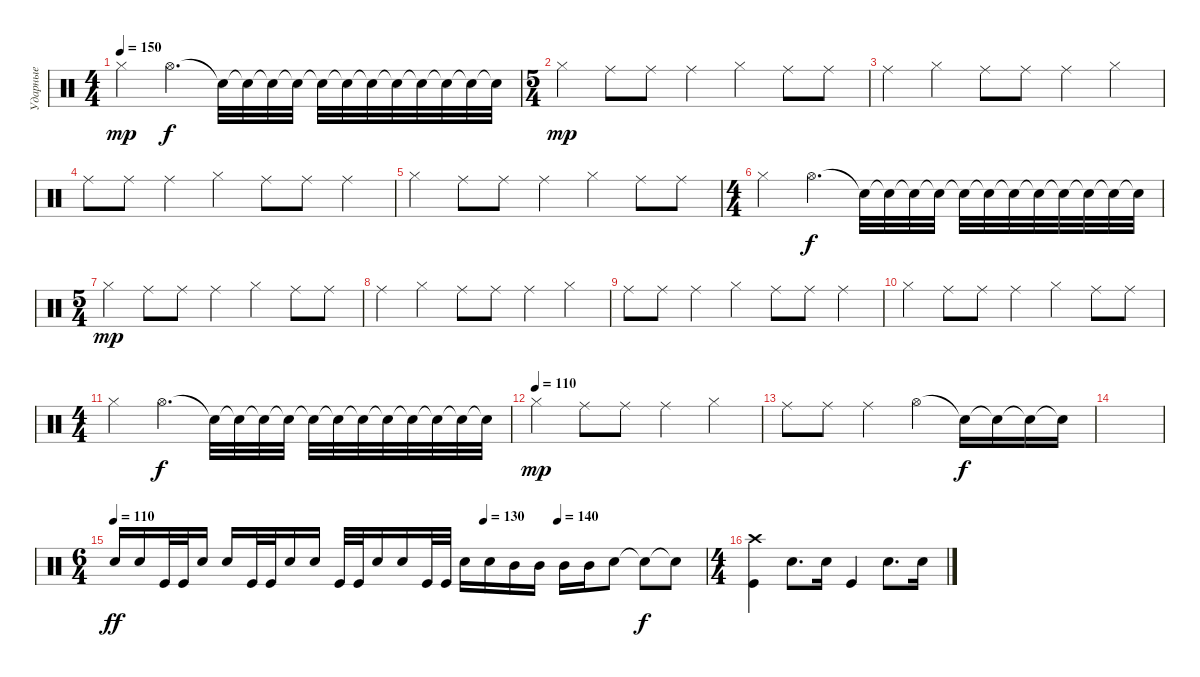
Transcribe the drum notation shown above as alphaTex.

\track ("Ударные" "Ударные") {instrument percussion}
\staff {score}
\articulation defaults
\ts (4 4)
\tempo 150
\clef neutral
\ks c "Hi-Hat (closed)".4{dy mp} "Hi-Hat (open)".4{d dy f} "Snare (hit)"{t}.32 "Snare (hit)"{t}.32 "Snare (hit)"{t}.32 "Snare (hit)"{t}.32 "Snare (hit)"{t}.32 "Snare (hit)"{t}.32 "Snare (hit)"{t}.32 "Snare (hit)"{t}.32 "Snare (hit)"{t}.32 "Snare (hit)"{t}.32 "Snare (hit)"{t}.32 "Snare (hit)"{t}.32
|
\ts (5 4)
"Hi-Hat (closed)".4{dy mp} "Ride (middle)".8 "Ride (middle)".8 "Ride (middle)".4 "Hi-Hat (closed)".4 "Ride (middle)".8 "Ride (middle)".8 |
"Ride (middle)".4 "Hi-Hat (closed)".4 "Ride (middle)".8 "Ride (middle)".8 "Ride (middle)".4 "Hi-Hat (closed)".4 |
"Ride (middle)".8 "Ride (middle)".8 "Ride (middle)".4 "Hi-Hat (closed)".4 "Ride (middle)".8 "Ride (middle)".8 "Ride (middle)".4 |
"Hi-Hat (closed)".4 "Ride (middle)".8 "Ride (middle)".8 "Ride (middle)".4 "Hi-Hat (closed)".4 "Ride (middle)".8 "Ride (middle)".8 |
\ts (4 4)
"Hi-Hat (closed)".4 "Hi-Hat (open)".4{d dy f} "Snare (hit)"{t}.32 "Snare (hit)"{t}.32 "Snare (hit)"{t}.32 "Snare (hit)"{t}.32 "Snare (hit)"{t}.32 "Snare (hit)"{t}.32 "Snare (hit)"{t}.32 "Snare (hit)"{t}.32 "Snare (hit)"{t}.32 "Snare (hit)"{t}.32 "Snare (hit)"{t}.32 "Snare (hit)"{t}.32 |
\ts (5 4)
"Hi-Hat (closed)".4{dy mp} "Ride (middle)".8 "Ride (middle)".8 "Ride (middle)".4 "Hi-Hat (closed)".4 "Ride (middle)".8 "Ride (middle)".8 |
"Ride (middle)".4 "Hi-Hat (closed)".4 "Ride (middle)".8 "Ride (middle)".8 "Ride (middle)".4 "Hi-Hat (closed)".4 |
"Ride (middle)".8 "Ride (middle)".8 "Ride (middle)".4 "Hi-Hat (closed)".4 "Ride (middle)".8 "Ride (middle)".8 "Ride (middle)".4 |
"Hi-Hat (closed)".4 "Ride (middle)".8 "Ride (middle)".8 "Ride (middle)".4 "Hi-Hat (closed)".4 "Ride (middle)".8 "Ride (middle)".8 |
\ts (4 4)
"Hi-Hat (closed)".4 "Hi-Hat (open)".4{d dy f} "Snare (hit)"{t}.32 "Snare (hit)"{t}.32 "Snare (hit)"{t}.32 "Snare (hit)"{t}.32 "Snare (hit)"{t}.32 "Snare (hit)"{t}.32 "Snare (hit)"{t}.32 "Snare (hit)"{t}.32 "Snare (hit)"{t}.32 "Snare (hit)"{t}.32 "Snare (hit)"{t}.32 "Snare (hit)"{t}.32 |
\tempo (110)
"Hi-Hat (closed)".4{dy mp} "Ride (middle)".8 "Ride (middle)".8 "Ride (middle)".4 "Hi-Hat (closed)".4 |
"Ride (middle)".8 "Ride (middle)".8 "Ride (middle)".4 "Hi-Hat (open)".4 "Snare (hit)"{t}.16{dy f} "Snare (hit)"{t}.16 "Snare (hit)"{t}.16 "Snare (hit)"{t}.16 |
|
\ts (6 4)
\tempo 110
\tempo (130 0.625)
\tempo (140 0.75)
"Snare (hit) 2".16{dy ff} "Snare (hit) 2".16 "Kick (hit)".32 "Kick (hit)".32 "Snare (hit) 2".16 "Snare (hit) 2".16 "Kick (hit)".32 "Kick (hit)".32 "Snare (hit) 2".16 "Snare (hit) 2".16 "Kick (hit)".32 "Kick (hit)".32 "Snare (hit) 2".16 "Snare (hit) 2".16 "Kick (hit)".32 "Kick (hit)".32 "Snare (hit) 2".16 "Snare (hit) 2".16 "Mid Tom (hit)".16 "Mid Tom (hit)".16 "Mid Tom (hit)".16 "Mid Tom (hit)".16 "Snare (hit) 2".8 "Snare (hit)"{t}.8{dy f} "Snare (hit)"{t}.8 |
\ts (4 4)
("Kick (hit)" "Crash high (hit)").4 "Snare (hit) 2".8{d} "Snare (hit) 2".16 "Kick (hit)".4 "Snare (hit) 2".8{d} "Snare (hit) 2".16
